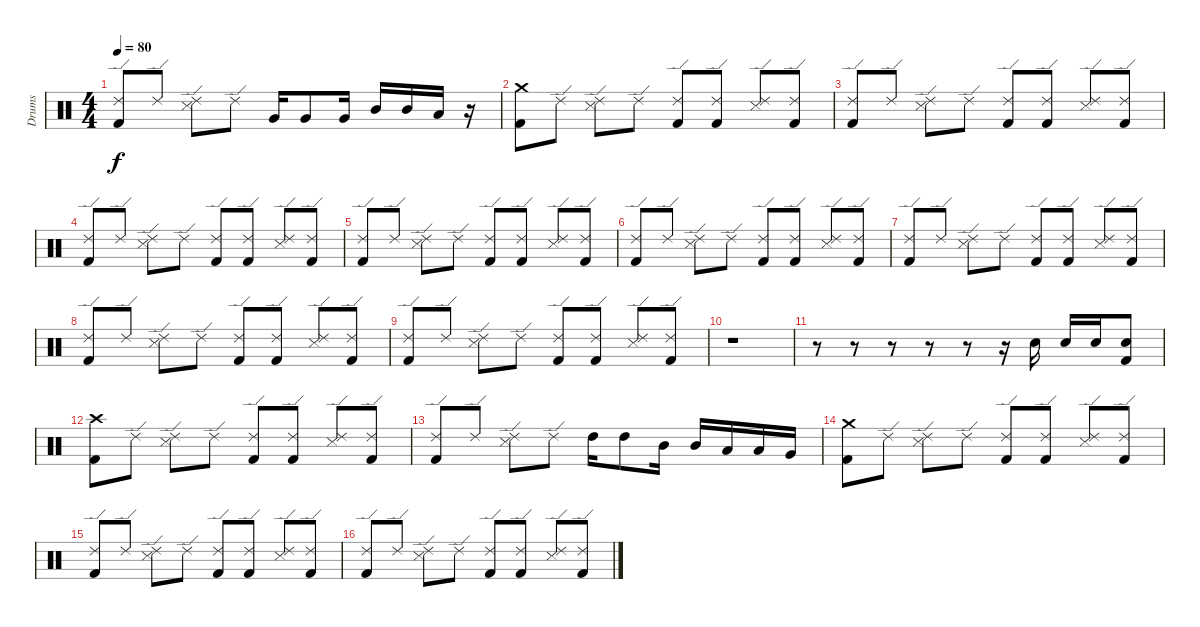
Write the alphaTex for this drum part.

\track ("Drums" "Drums") {instrument percussion}
\staff {score}
\articulation defaults
\ts (4 4)
\tempo 80
\clef neutral
\ks c
("Kick (hit) 2" "Ride (edge) 2").8{dy f} "Ride (edge) 2".8 ("Ride (edge) 2" "Snare (side stick) 3").8 "Ride (edge) 2".8 "Very Low Tom (hit)".16 "Very Low Tom (hit)".8 "Very Low Tom (hit)".16 "Mid Tom (hit)".16 "Mid Tom (hit)".16 "Low Tom (hit)".16 r.16 |
("Crash medium (hit)" "Kick (hit) 2").8 "Ride (edge) 2".8 ("Ride (edge) 2" "Snare (side stick) 3").8 "Ride (edge) 2".8 ("Ride (edge) 2" "Kick (hit) 2").8 ("Ride (edge) 2" "Kick (hit) 2").8 ("Ride (edge) 2" "Snare (side stick) 3").8 ("Ride (edge) 2" "Kick (hit) 2").8 |
("Ride (edge) 2" "Kick (hit) 2").8 "Ride (edge) 2".8 ("Ride (edge) 2" "Snare (side stick) 3").8 "Ride (edge) 2".8 ("Ride (edge) 2" "Kick (hit) 2").8 ("Ride (edge) 2" "Kick (hit) 2").8 ("Ride (edge) 2" "Snare (side stick) 3").8 ("Ride (edge) 2" "Kick (hit) 2").8 |
("Ride (edge) 2" "Kick (hit) 2").8 "Ride (edge) 2".8 ("Ride (edge) 2" "Snare (side stick) 3").8 "Ride (edge) 2".8 ("Ride (edge) 2" "Kick (hit) 2").8 ("Ride (edge) 2" "Kick (hit) 2").8 ("Ride (edge) 2" "Snare (side stick) 3").8 ("Ride (edge) 2" "Kick (hit) 2").8 |
("Ride (edge) 2" "Kick (hit) 2").8 "Ride (edge) 2".8 ("Ride (edge) 2" "Snare (side stick) 3").8 "Ride (edge) 2".8 ("Ride (edge) 2" "Kick (hit) 2").8 ("Ride (edge) 2" "Kick (hit) 2").8 ("Ride (edge) 2" "Snare (side stick) 3").8 ("Ride (edge) 2" "Kick (hit) 2").8 |
("Ride (edge) 2" "Kick (hit) 2").8 "Ride (edge) 2".8 ("Ride (edge) 2" "Snare (side stick) 3").8 "Ride (edge) 2".8 ("Ride (edge) 2" "Kick (hit) 2").8 ("Ride (edge) 2" "Kick (hit) 2").8 ("Ride (edge) 2" "Snare (side stick) 3").8 ("Ride (edge) 2" "Kick (hit) 2").8 |
("Ride (edge) 2" "Kick (hit) 2").8 "Ride (edge) 2".8 ("Ride (edge) 2" "Snare (side stick) 3").8 "Ride (edge) 2".8 ("Ride (edge) 2" "Kick (hit) 2").8 ("Ride (edge) 2" "Kick (hit) 2").8 ("Ride (edge) 2" "Snare (side stick) 3").8 ("Ride (edge) 2" "Kick (hit) 2").8 |
("Ride (edge) 2" "Kick (hit) 2").8 "Ride (edge) 2".8 ("Ride (edge) 2" "Snare (side stick) 3").8 "Ride (edge) 2".8 ("Ride (edge) 2" "Kick (hit) 2").8 ("Ride (edge) 2" "Kick (hit) 2").8 ("Ride (edge) 2" "Snare (side stick) 3").8 ("Ride (edge) 2" "Kick (hit) 2").8 |
("Ride (edge) 2" "Kick (hit) 2").8 "Ride (edge) 2".8 ("Ride (edge) 2" "Snare (side stick) 3").8 "Ride (edge) 2".8 ("Ride (edge) 2" "Kick (hit) 2").8 ("Ride (edge) 2" "Kick (hit) 2").8 ("Ride (edge) 2" "Snare (side stick) 3").8 ("Ride (edge) 2" "Kick (hit) 2").8 |
r.1 |
r.8 r.8 r.8 r.8 r.8 r.16 "Snare (hit) 2".16 "Snare (hit) 2".16 "Snare (hit) 2".16 ("Snare (hit) 2" "Kick (hit) 2").8 |
("Crash high (hit)" "Kick (hit) 2").8 "Ride (edge) 2".8 ("Ride (edge) 2" "Snare (side stick) 3").8 "Ride (edge) 2".8 ("Ride (edge) 2" "Kick (hit) 2").8 ("Ride (edge) 2" "Kick (hit) 2").8 ("Ride (edge) 2" "Snare (side stick) 3").8 ("Ride (edge) 2" "Kick (hit) 2").8 |
("Kick (hit) 2" "Ride (edge) 2").8 "Ride (edge) 2".8 ("Ride (edge) 2" "Snare (side stick) 3").8 "Ride (edge) 2".8 "High Tom (hit)".16 "High Tom (hit)".8 "Mid Tom (hit)".16 "Mid Tom (hit)".16 "Low Tom (hit)".16 "Low Tom (hit)".16 "Very Low Tom (hit)".16 |
("Crash medium (hit)" "Kick (hit) 2").8 "Ride (edge) 2".8 ("Ride (edge) 2" "Snare (side stick) 3").8 "Ride (edge) 2".8 ("Ride (edge) 2" "Kick (hit) 2").8 ("Ride (edge) 2" "Kick (hit) 2").8 ("Ride (edge) 2" "Snare (side stick) 3").8 ("Ride (edge) 2" "Kick (hit) 2").8 |
("Ride (edge) 2" "Kick (hit) 2").8 "Ride (edge) 2".8 ("Ride (edge) 2" "Snare (side stick) 3").8 "Ride (edge) 2".8 ("Ride (edge) 2" "Kick (hit) 2").8 ("Ride (edge) 2" "Kick (hit) 2").8 ("Ride (edge) 2" "Snare (side stick) 3").8 ("Ride (edge) 2" "Kick (hit) 2").8 |
("Ride (edge) 2" "Kick (hit) 2").8 "Ride (edge) 2".8 ("Ride (edge) 2" "Snare (side stick) 3").8 "Ride (edge) 2".8 ("Ride (edge) 2" "Kick (hit) 2").8 ("Ride (edge) 2" "Kick (hit) 2").8 ("Ride (edge) 2" "Snare (side stick) 3").8 ("Ride (edge) 2" "Kick (hit) 2").8
